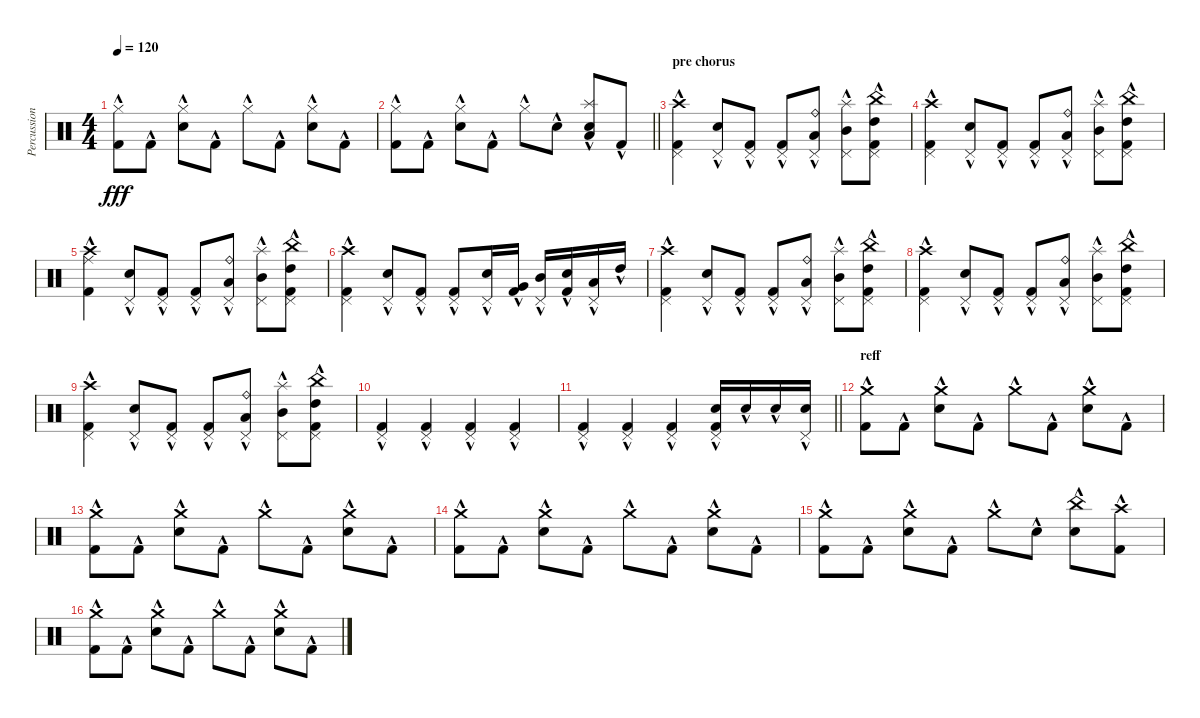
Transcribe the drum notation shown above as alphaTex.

\track ("Percussion" "Percussion") {instrument percussion}
\staff {score}
\articulation defaults
\ts (4 4)
\tempo 120
\clef neutral
\ks c
("Hi-Hat (closed)"{hac} "Kick (hit) 2"{hac}).8{dy fff} "Kick (hit) 2"{hac}.8 ("Hi-Hat (closed)"{hac} "Electric Snare (hit)"{hac}).8 "Kick (hit) 2"{hac}.8 "Hi-Hat (closed)"{hac}.8 "Kick (hit) 2"{hac}.8 ("Hi-Hat (closed)"{hac} "Electric Snare (hit)"{hac}).8 "Kick (hit) 2"{hac}.8 |
\barLineRight lightlight
("Hi-Hat (closed)"{hac} "Kick (hit) 2"{hac}).8 "Kick (hit) 2"{hac}.8 ("Hi-Hat (closed)"{hac} "Electric Snare (hit)"{hac}).8 "Kick (hit) 2"{hac}.8 "Hi-Hat (closed)"{hac}.8 "Electric Snare (hit)"{hac}.8 ("Splash (hit)"{hac} "Electric Snare (hit)"{hac} "Low Floor Tom (hit)"{hac}).8 "Kick (hit) 2"{hac}.8 |
\section ("" "pre chorus")
("Pedal Hi-Hat (hit)" "Crash high (hit)"{hac} "Kick (hit) 2"{hac}).4 ("Pedal Hi-Hat (hit)" "Electric Snare (hit)"{hac}).8 ("Pedal Hi-Hat (hit)" "Kick (hit) 2"{hac}).8 ("Pedal Hi-Hat (hit)" "Kick (hit) 2"{hac}).8 ("Ride (bell)"{hac} "Low Tom (hit)"{hac} "Pedal Hi-Hat (hit)").8 ("Splash (hit)"{hac} "Mid Tom (hit)"{hac} "Pedal Hi-Hat (hit)").8 ("China (hit)"{hac} "High Tom (hit)"{hac} "Kick (hit) 2"{hac} "Pedal Hi-Hat (hit)").8 |
("Pedal Hi-Hat (hit)" "Crash high (hit)"{hac} "Kick (hit) 2"{hac}).4 ("Pedal Hi-Hat (hit)" "Electric Snare (hit)"{hac}).8 ("Pedal Hi-Hat (hit)" "Kick (hit) 2"{hac}).8 ("Pedal Hi-Hat (hit)" "Kick (hit) 2"{hac}).8 ("Ride (bell)"{hac} "Low Tom (hit)"{hac} "Pedal Hi-Hat (hit)").8 ("Splash (hit)"{hac} "Mid Tom (hit)"{hac} "Pedal Hi-Hat (hit)").8 ("China (hit)"{hac} "High Tom (hit)"{hac} "Kick (hit) 2"{hac} "Pedal Hi-Hat (hit)").8 |
("Ride (middle)" "Crash high (hit)"{hac} "Kick (hit) 2"{hac}).4 ("Pedal Hi-Hat (hit)" "Electric Snare (hit)"{hac}).8 ("Pedal Hi-Hat (hit)" "Kick (hit) 2"{hac}).8 ("Pedal Hi-Hat (hit)" "Kick (hit) 2"{hac}).8 ("Ride (bell)"{hac} "Low Tom (hit)"{hac} "Pedal Hi-Hat (hit)").8 ("Splash (hit)"{hac} "Mid Tom (hit)"{hac} "Pedal Hi-Hat (hit)").8 ("China (hit)"{hac} "High Tom (hit)"{hac} "Kick (hit) 2"{hac} "Pedal Hi-Hat (hit)").8 |
("Pedal Hi-Hat (hit)" "Crash high (hit)"{hac} "Kick (hit) 2"{hac}).4 ("Pedal Hi-Hat (hit)" "Electric Snare (hit)"{hac}).8 ("Pedal Hi-Hat (hit)" "Kick (hit) 2"{hac}).8 ("Pedal Hi-Hat (hit)" "Kick (hit) 2"{hac}).8 ("Pedal Hi-Hat (hit)" "Electric Snare (hit)"{hac}).16 ("Very Low Tom (hit)"{hac} "Kick (hit) 2"{hac}).16 ("Pedal Hi-Hat (hit)" "Mid Tom (hit)"{hac}).16 ("Electric Snare (hit)"{hac} "Kick (hit) 2"{hac}).16 ("Pedal Hi-Hat (hit)" "Low Tom (hit)"{hac}).16 "High Tom (hit)"{hac}.16 |
("Pedal Hi-Hat (hit)" "Crash high (hit)"{hac} "Kick (hit) 2"{hac}).4 ("Pedal Hi-Hat (hit)" "Electric Snare (hit)"{hac}).8 ("Pedal Hi-Hat (hit)" "Kick (hit) 2"{hac}).8 ("Pedal Hi-Hat (hit)" "Kick (hit) 2"{hac}).8 ("Ride (bell)"{hac} "Low Tom (hit)"{hac} "Pedal Hi-Hat (hit)").8 ("Splash (hit)"{hac} "Mid Tom (hit)"{hac} "Pedal Hi-Hat (hit)").8 ("China (hit)"{hac} "High Tom (hit)"{hac} "Kick (hit) 2"{hac} "Pedal Hi-Hat (hit)").8 |
("Pedal Hi-Hat (hit)" "Crash high (hit)"{hac} "Kick (hit) 2"{hac}).4 ("Pedal Hi-Hat (hit)" "Electric Snare (hit)"{hac}).8 ("Pedal Hi-Hat (hit)" "Kick (hit) 2"{hac}).8 ("Pedal Hi-Hat (hit)" "Kick (hit) 2"{hac}).8 ("Ride (bell)"{hac} "Low Tom (hit)"{hac} "Pedal Hi-Hat (hit)").8 ("Splash (hit)"{hac} "Mid Tom (hit)"{hac} "Pedal Hi-Hat (hit)").8 ("China (hit)"{hac} "High Tom (hit)"{hac} "Kick (hit) 2"{hac} "Pedal Hi-Hat (hit)").8 |
("Pedal Hi-Hat (hit)" "Crash high (hit)"{hac} "Kick (hit) 2"{hac}).4 ("Pedal Hi-Hat (hit)" "Electric Snare (hit)"{hac}).8 ("Pedal Hi-Hat (hit)" "Kick (hit) 2"{hac}).8 ("Pedal Hi-Hat (hit)" "Kick (hit) 2"{hac}).8 ("Ride (bell)"{hac} "Low Tom (hit)"{hac} "Pedal Hi-Hat (hit)").8 ("Splash (hit)"{hac} "Mid Tom (hit)"{hac} "Pedal Hi-Hat (hit)").8 ("China (hit)"{hac} "High Tom (hit)"{hac} "Kick (hit) 2"{hac} "Pedal Hi-Hat (hit)").8 |
("Pedal Hi-Hat (hit)"{hac} "Kick (hit) 2"{hac}).4 ("Pedal Hi-Hat (hit)"{hac} "Kick (hit) 2"{hac}).4 ("Pedal Hi-Hat (hit)"{hac} "Kick (hit) 2"{hac}).4 ("Pedal Hi-Hat (hit)"{hac} "Kick (hit) 2"{hac}).4 |
\barLineRight lightlight
("Pedal Hi-Hat (hit)"{hac} "Kick (hit) 2"{hac}).4 ("Pedal Hi-Hat (hit)"{hac} "Kick (hit) 2"{hac}).4 ("Pedal Hi-Hat (hit)"{hac} "Kick (hit) 2"{hac}).4 ("Pedal Hi-Hat (hit)" "Kick (hit) 2"{hac} "Electric Snare (hit)"{hac}).16 "Electric Snare (hit)"{hac}.16 "Electric Snare (hit)"{hac}.16 ("Pedal Hi-Hat (hit)" "Electric Snare (hit)"{hac}).16 |
\section ("" "reff")
("Crash medium (hit)"{hac} "Kick (hit) 2"{hac}).8 "Kick (hit) 2"{hac}.8 ("Crash medium (hit)"{hac} "Electric Snare (hit)"{hac}).8 "Kick (hit) 2"{hac}.8 "Crash medium (hit)"{hac}.8 "Kick (hit) 2"{hac}.8 ("Crash medium (hit)"{hac} "Electric Snare (hit)"{hac}).8 "Kick (hit) 2"{hac}.8 |
("Crash medium (hit)"{hac} "Kick (hit) 2"{hac}).8 "Kick (hit) 2"{hac}.8 ("Crash medium (hit)"{hac} "Electric Snare (hit)"{hac}).8 "Kick (hit) 2"{hac}.8 "Crash medium (hit)"{hac}.8 "Kick (hit) 2"{hac}.8 ("Crash medium (hit)"{hac} "Electric Snare (hit)"{hac}).8 "Kick (hit) 2"{hac}.8 |
("Crash medium (hit)"{hac} "Kick (hit) 2"{hac}).8 "Kick (hit) 2"{hac}.8 ("Crash medium (hit)"{hac} "Electric Snare (hit)"{hac}).8 "Kick (hit) 2"{hac}.8 "Crash medium (hit)"{hac}.8 "Kick (hit) 2"{hac}.8 ("Crash medium (hit)"{hac} "Electric Snare (hit)"{hac}).8 "Kick (hit) 2"{hac}.8 |
("Crash medium (hit)"{hac} "Kick (hit) 2"{hac}).8 "Kick (hit) 2"{hac}.8 ("Crash medium (hit)"{hac} "Electric Snare (hit)"{hac}).8 "Kick (hit) 2"{hac}.8 "Crash medium (hit)"{hac}.8 "Electric Snare (hit)"{hac}.8 ("China (hit)"{hac} "Electric Snare (hit)"{hac}).8 ("Crash high (hit)"{hac} "Kick (hit) 2"{hac}).8 |
("Crash medium (hit)"{hac} "Kick (hit) 2"{hac}).8 "Kick (hit) 2"{hac}.8 ("Crash medium (hit)"{hac} "Electric Snare (hit)"{hac}).8 "Kick (hit) 2"{hac}.8 "Crash medium (hit)"{hac}.8 "Kick (hit) 2"{hac}.8 ("Crash medium (hit)"{hac} "Electric Snare (hit)"{hac}).8 "Kick (hit) 2"{hac}.8
